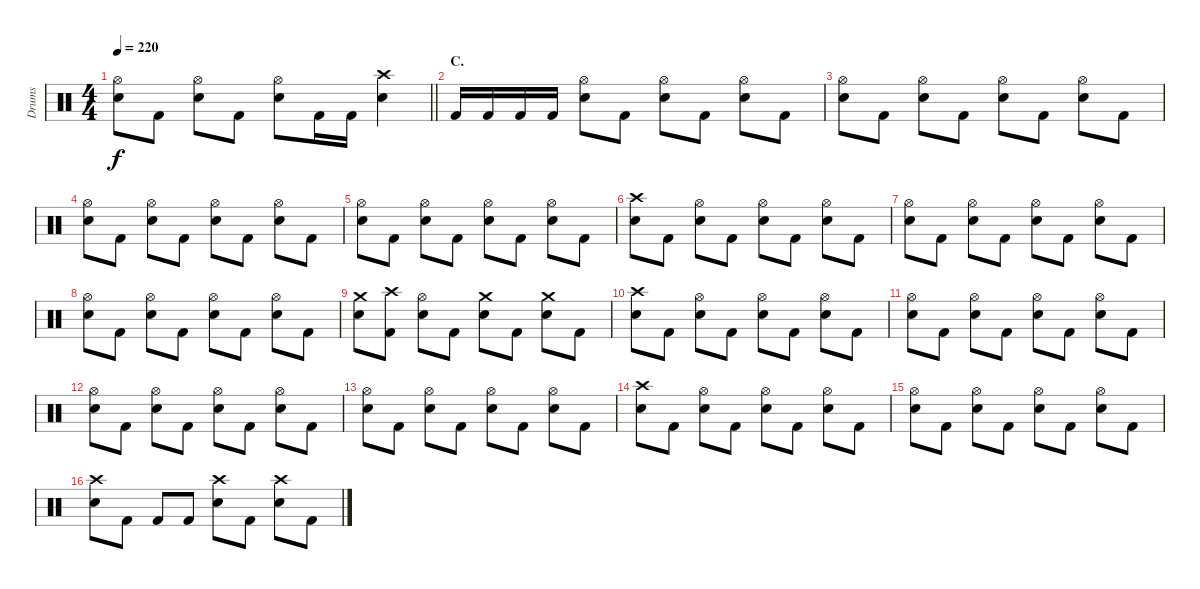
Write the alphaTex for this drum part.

\track ("Drums" "Drums") {instrument percussion}
\staff {score}
\articulation defaults
\ts (4 4)
\tempo 220
\clef neutral
\barLineRight lightlight
\ks c
("Hi-Hat (open)" "Electric Snare (hit)").8{dy f} "Kick (hit) 2".8 ("Hi-Hat (open)" "Electric Snare (hit)").8 "Kick (hit) 2".8 ("Hi-Hat (open)" "Electric Snare (hit)").8 "Kick (hit) 2".16 "Kick (hit) 2".16 ("Crash high (hit)" "Electric Snare (hit)").4 |
\section ("" "C.")
"Kick (hit) 2".16 "Kick (hit) 2".16 "Kick (hit) 2".16 "Kick (hit) 2".16 ("Hi-Hat (open)" "Electric Snare (hit)").8 "Kick (hit) 2".8 ("Hi-Hat (open)" "Electric Snare (hit)").8 "Kick (hit) 2".8 ("Hi-Hat (open)" "Electric Snare (hit)").8 "Kick (hit) 2".8 |
("Hi-Hat (open)" "Electric Snare (hit)").8 "Kick (hit) 2".8 ("Hi-Hat (open)" "Electric Snare (hit)").8 "Kick (hit) 2".8 ("Hi-Hat (open)" "Electric Snare (hit)").8 "Kick (hit) 2".8 ("Hi-Hat (open)" "Electric Snare (hit)").8 "Kick (hit) 2".8 |
("Hi-Hat (open)" "Electric Snare (hit)").8 "Kick (hit) 2".8 ("Hi-Hat (open)" "Electric Snare (hit)").8 "Kick (hit) 2".8 ("Hi-Hat (open)" "Electric Snare (hit)").8 "Kick (hit) 2".8 ("Hi-Hat (open)" "Electric Snare (hit)").8 "Kick (hit) 2".8 |
("Hi-Hat (open)" "Electric Snare (hit)").8 "Kick (hit) 2".8 ("Hi-Hat (open)" "Electric Snare (hit)").8 "Kick (hit) 2".8 ("Hi-Hat (open)" "Electric Snare (hit)").8 "Kick (hit) 2".8 ("Hi-Hat (open)" "Electric Snare (hit)").8 "Kick (hit) 2".8 |
("Crash high (hit)" "Electric Snare (hit)").8 "Kick (hit) 2".8 ("Hi-Hat (open)" "Electric Snare (hit)").8 "Kick (hit) 2".8 ("Hi-Hat (open)" "Electric Snare (hit)").8 "Kick (hit) 2".8 ("Hi-Hat (open)" "Electric Snare (hit)").8 "Kick (hit) 2".8 |
("Hi-Hat (open)" "Electric Snare (hit)").8 "Kick (hit) 2".8 ("Hi-Hat (open)" "Electric Snare (hit)").8 "Kick (hit) 2".8 ("Hi-Hat (open)" "Electric Snare (hit)").8 "Kick (hit) 2".8 ("Hi-Hat (open)" "Electric Snare (hit)").8 "Kick (hit) 2".8 |
("Hi-Hat (open)" "Electric Snare (hit)").8 "Kick (hit) 2".8 ("Hi-Hat (open)" "Electric Snare (hit)").8 "Kick (hit) 2".8 ("Hi-Hat (open)" "Electric Snare (hit)").8 "Kick (hit) 2".8 ("Hi-Hat (open)" "Electric Snare (hit)").8 "Kick (hit) 2".8 |
("Crash medium (hit)" "Electric Snare (hit)").8 ("Crash high (hit)" "Kick (hit) 2").8 ("Hi-Hat (open)" "Electric Snare (hit)").8 "Kick (hit) 2".8 ("Crash medium (hit)" "Electric Snare (hit)").8 "Kick (hit) 2".8 ("Crash medium (hit)" "Electric Snare (hit)").8 "Kick (hit) 2".8 |
("Crash high (hit)" "Electric Snare (hit)").8 "Kick (hit) 2".8 ("Hi-Hat (open)" "Electric Snare (hit)").8 "Kick (hit) 2".8 ("Hi-Hat (open)" "Electric Snare (hit)").8 "Kick (hit) 2".8 ("Hi-Hat (open)" "Electric Snare (hit)").8 "Kick (hit) 2".8 |
("Hi-Hat (open)" "Electric Snare (hit)").8 "Kick (hit) 2".8 ("Hi-Hat (open)" "Electric Snare (hit)").8 "Kick (hit) 2".8 ("Hi-Hat (open)" "Electric Snare (hit)").8 "Kick (hit) 2".8 ("Hi-Hat (open)" "Electric Snare (hit)").8 "Kick (hit) 2".8 |
("Hi-Hat (open)" "Electric Snare (hit)").8 "Kick (hit) 2".8 ("Hi-Hat (open)" "Electric Snare (hit)").8 "Kick (hit) 2".8 ("Hi-Hat (open)" "Electric Snare (hit)").8 "Kick (hit) 2".8 ("Hi-Hat (open)" "Electric Snare (hit)").8 "Kick (hit) 2".8 |
("Hi-Hat (open)" "Electric Snare (hit)").8 "Kick (hit) 2".8 ("Hi-Hat (open)" "Electric Snare (hit)").8 "Kick (hit) 2".8 ("Hi-Hat (open)" "Electric Snare (hit)").8 "Kick (hit) 2".8 ("Hi-Hat (open)" "Electric Snare (hit)").8 "Kick (hit) 2".8 |
("Crash high (hit)" "Electric Snare (hit)").8 "Kick (hit) 2".8 ("Hi-Hat (open)" "Electric Snare (hit)").8 "Kick (hit) 2".8 ("Hi-Hat (open)" "Electric Snare (hit)").8 "Kick (hit) 2".8 ("Hi-Hat (open)" "Electric Snare (hit)").8 "Kick (hit) 2".8 |
("Hi-Hat (open)" "Electric Snare (hit)").8 "Kick (hit) 2".8 ("Hi-Hat (open)" "Electric Snare (hit)").8 "Kick (hit) 2".8 ("Hi-Hat (open)" "Electric Snare (hit)").8 "Kick (hit) 2".8 ("Hi-Hat (open)" "Electric Snare (hit)").8 "Kick (hit) 2".8 |
("Crash high (hit)" "Electric Snare (hit)").8 "Kick (hit) 2".8 "Kick (hit) 2".8 "Kick (hit) 2".8 ("Crash high (hit)" "Electric Snare (hit)").8 "Kick (hit) 2".8 ("Crash high (hit)" "Electric Snare (hit)").8 "Kick (hit) 2".8
